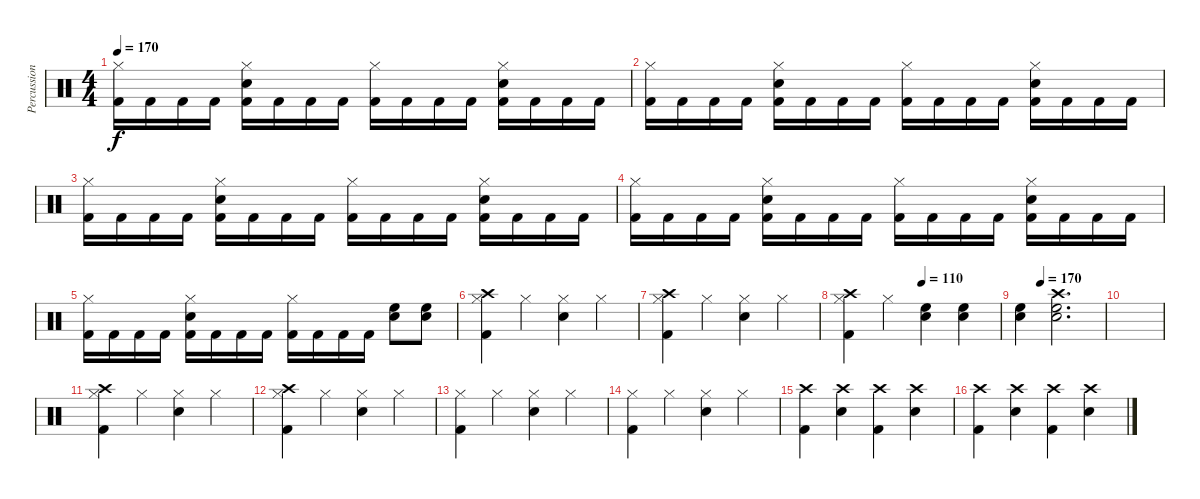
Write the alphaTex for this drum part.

\track ("Percussion" "Percussion") {instrument percussion}
\staff {score}
\articulation defaults
\ts (4 4)
\tempo 170
\clef neutral
\ks c
("Hi-Hat (closed)" "Kick (hit) 2").16{dy f} "Kick (hit) 2".16 "Kick (hit) 2".16 "Kick (hit) 2".16 ("Hi-Hat (closed)" "Electric Snare (hit)" "Kick (hit) 2").16 "Kick (hit) 2".16 "Kick (hit) 2".16 "Kick (hit) 2".16 ("Hi-Hat (closed)" "Kick (hit) 2").16 "Kick (hit) 2".16 "Kick (hit) 2".16 "Kick (hit) 2".16 ("Hi-Hat (closed)" "Electric Snare (hit)" "Kick (hit) 2").16 "Kick (hit) 2".16 "Kick (hit) 2".16 "Kick (hit) 2".16 |
("Hi-Hat (closed)" "Kick (hit) 2").16 "Kick (hit) 2".16 "Kick (hit) 2".16 "Kick (hit) 2".16 ("Hi-Hat (closed)" "Electric Snare (hit)" "Kick (hit) 2").16 "Kick (hit) 2".16 "Kick (hit) 2".16 "Kick (hit) 2".16 ("Hi-Hat (closed)" "Kick (hit) 2").16 "Kick (hit) 2".16 "Kick (hit) 2".16 "Kick (hit) 2".16 ("Hi-Hat (closed)" "Electric Snare (hit)" "Kick (hit) 2").16 "Kick (hit) 2".16 "Kick (hit) 2".16 "Kick (hit) 2".16 |
("Hi-Hat (closed)" "Kick (hit) 2").16 "Kick (hit) 2".16 "Kick (hit) 2".16 "Kick (hit) 2".16 ("Hi-Hat (closed)" "Electric Snare (hit)" "Kick (hit) 2").16 "Kick (hit) 2".16 "Kick (hit) 2".16 "Kick (hit) 2".16 ("Hi-Hat (closed)" "Kick (hit) 2").16 "Kick (hit) 2".16 "Kick (hit) 2".16 "Kick (hit) 2".16 ("Hi-Hat (closed)" "Electric Snare (hit)" "Kick (hit) 2").16 "Kick (hit) 2".16 "Kick (hit) 2".16 "Kick (hit) 2".16 |
("Hi-Hat (closed)" "Kick (hit) 2").16 "Kick (hit) 2".16 "Kick (hit) 2".16 "Kick (hit) 2".16 ("Hi-Hat (closed)" "Electric Snare (hit)" "Kick (hit) 2").16 "Kick (hit) 2".16 "Kick (hit) 2".16 "Kick (hit) 2".16 ("Hi-Hat (closed)" "Kick (hit) 2").16 "Kick (hit) 2".16 "Kick (hit) 2".16 "Kick (hit) 2".16 ("Hi-Hat (closed)" "Electric Snare (hit)" "Kick (hit) 2").16 "Kick (hit) 2".16 "Kick (hit) 2".16 "Kick (hit) 2".16 |
("Hi-Hat (closed)" "Kick (hit) 2").16 "Kick (hit) 2".16 "Kick (hit) 2".16 "Kick (hit) 2".16 ("Hi-Hat (closed)" "Electric Snare (hit)" "Kick (hit) 2").16 "Kick (hit) 2".16 "Kick (hit) 2".16 "Kick (hit) 2".16 ("Hi-Hat (closed)" "Kick (hit) 2").16 "Kick (hit) 2".16 "Kick (hit) 2".16 "Kick (hit) 2".16 ("High Floor Tom (hit)" "Electric Snare (hit)").8 ("High Floor Tom (hit)" "Electric Snare (hit)").8 |
("Hi-Hat (closed)" "Kick (hit) 2" "Crash high (hit)").4 "Hi-Hat (closed)".4 ("Hi-Hat (closed)" "Electric Snare (hit)").4 "Hi-Hat (closed)".4 |
("Hi-Hat (closed)" "Kick (hit) 2" "Crash high (hit)").4 "Hi-Hat (closed)".4 ("Hi-Hat (closed)" "Electric Snare (hit)").4 "Hi-Hat (closed)".4 |
\tempo (110 0.5)
("Hi-Hat (closed)" "Kick (hit) 2" "Crash high (hit)").4 "Hi-Hat (closed)".4 ("Electric Snare (hit)" "High Floor Tom (hit)").4 ("Electric Snare (hit)" "High Floor Tom (hit)").4 |
\tempo (170 0.25)
("Electric Snare (hit)" "High Floor Tom (hit)").4 ("Electric Snare (hit)" "High Floor Tom (hit)" "Crash high (hit)").2{d} |
|
("Hi-Hat (closed)" "Kick (hit) 2" "Crash high (hit)").4 "Hi-Hat (closed)".4 ("Hi-Hat (closed)" "Electric Snare (hit)").4 "Hi-Hat (closed)".4 |
("Hi-Hat (closed)" "Kick (hit) 2" "Crash high (hit)").4 "Hi-Hat (closed)".4 ("Hi-Hat (closed)" "Electric Snare (hit)").4 "Hi-Hat (closed)".4 |
("Hi-Hat (closed)" "Kick (hit) 2").4 "Hi-Hat (closed)".4 ("Hi-Hat (closed)" "Electric Snare (hit)").4 "Hi-Hat (closed)".4 |
("Hi-Hat (closed)" "Kick (hit) 2").4 "Hi-Hat (closed)".4 ("Hi-Hat (closed)" "Electric Snare (hit)").4 "Hi-Hat (closed)".4 |
("Crash high (hit)" "Kick (hit) 2").4 ("Crash high (hit)" "Electric Snare (hit)").4 ("Crash high (hit)" "Kick (hit) 2").4 ("Crash high (hit)" "Electric Snare (hit)").4 |
("Crash high (hit)" "Kick (hit) 2").4 ("Crash high (hit)" "Electric Snare (hit)").4 ("Crash high (hit)" "Kick (hit) 2").4 ("Crash high (hit)" "Electric Snare (hit)").4
